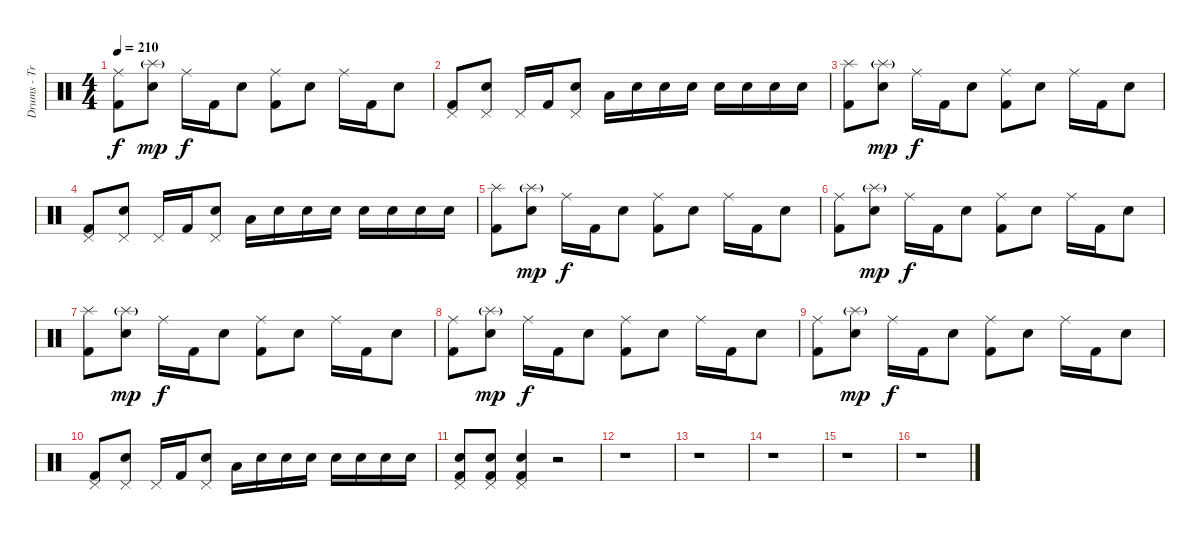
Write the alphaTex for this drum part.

\track ("Drums - Travis Barker" "Drums - Tr") {instrument percussion}
\staff {score}
\articulation defaults
\ts (4 4)
\tempo 210
\clef neutral
\ks c
("Ride (middle)" "Kick (hit) 2").8{dy f} ("Splash (hit)"{g} "Electric Snare (hit)").8{dy mp} "Ride (middle)".16{dy f} "Kick (hit) 2".16 "Electric Snare (hit)".8 ("Ride (middle)" "Kick (hit) 2").8 "Electric Snare (hit)".8 "Ride (middle)".16 "Kick (hit) 2".16 "Electric Snare (hit)".8 |
("Pedal Hi-Hat (hit)" "Kick (hit) 2").8 ("Pedal Hi-Hat (hit)" "Electric Snare (hit)").8 "Pedal Hi-Hat (hit)".16 "Kick (hit) 2".16 ("Pedal Hi-Hat (hit)" "Electric Snare (hit)").8 "Low Tom (hit)".16 "Electric Snare (hit)".16 "Electric Snare (hit)".16 "Electric Snare (hit)".16 "Electric Snare (hit)".16 "Electric Snare (hit)".16 "Electric Snare (hit)".16 "Electric Snare (hit)".16 |
("Splash (hit)" "Kick (hit) 2").8 ("Splash (hit)"{g} "Electric Snare (hit)").8{dy mp} "Ride (middle)".16{dy f} "Kick (hit) 2".16 "Electric Snare (hit)".8 ("Ride (middle)" "Kick (hit) 2").8 "Electric Snare (hit)".8 "Ride (middle)".16 "Kick (hit) 2".16 "Electric Snare (hit)".8 |
("Pedal Hi-Hat (hit)" "Kick (hit) 2").8 ("Pedal Hi-Hat (hit)" "Electric Snare (hit)").8 "Pedal Hi-Hat (hit)".16 "Kick (hit) 2".16 ("Pedal Hi-Hat (hit)" "Electric Snare (hit)").8 "Low Tom (hit)".16 "Electric Snare (hit)".16 "Electric Snare (hit)".16 "Electric Snare (hit)".16 "Electric Snare (hit)".16 "Electric Snare (hit)".16 "Electric Snare (hit)".16 "Electric Snare (hit)".16 |
("Splash (hit)" "Kick (hit) 2").8 ("Splash (hit)"{g} "Electric Snare (hit)").8{dy mp} "Ride (middle)".16{dy f} "Kick (hit) 2".16 "Electric Snare (hit)".8 ("Ride (middle)" "Kick (hit) 2").8 "Electric Snare (hit)".8 "Ride (middle)".16 "Kick (hit) 2".16 "Electric Snare (hit)".8 |
("Ride (middle)" "Kick (hit) 2").8 ("Splash (hit)"{g} "Electric Snare (hit)").8{dy mp} "Ride (middle)".16{dy f} "Kick (hit) 2".16 "Electric Snare (hit)".8 ("Ride (middle)" "Kick (hit) 2").8 "Electric Snare (hit)".8 "Ride (middle)".16 "Kick (hit) 2".16 "Electric Snare (hit)".8 |
("Splash (hit)" "Kick (hit) 2").8 ("Splash (hit)"{g} "Electric Snare (hit)").8{dy mp} "Ride (middle)".16{dy f} "Kick (hit) 2".16 "Electric Snare (hit)".8 ("Ride (middle)" "Kick (hit) 2").8 "Electric Snare (hit)".8 "Ride (middle)".16 "Kick (hit) 2".16 "Electric Snare (hit)".8 |
("Ride (middle)" "Kick (hit) 2").8 ("Splash (hit)"{g} "Electric Snare (hit)").8{dy mp} "Ride (middle)".16{dy f} "Kick (hit) 2".16 "Electric Snare (hit)".8 ("Ride (middle)" "Kick (hit) 2").8 "Electric Snare (hit)".8 "Ride (middle)".16 "Kick (hit) 2".16 "Electric Snare (hit)".8 |
("Ride (middle)" "Kick (hit) 2").8 ("Splash (hit)"{g} "Electric Snare (hit)").8{dy mp} "Ride (middle)".16{dy f} "Kick (hit) 2".16 "Electric Snare (hit)".8 ("Ride (middle)" "Kick (hit) 2").8 "Electric Snare (hit)".8 "Ride (middle)".16 "Kick (hit) 2".16 "Electric Snare (hit)".8 |
("Pedal Hi-Hat (hit)" "Kick (hit) 2").8 ("Pedal Hi-Hat (hit)" "Electric Snare (hit)").8 "Pedal Hi-Hat (hit)".16 "Kick (hit) 2".16 ("Pedal Hi-Hat (hit)" "Electric Snare (hit)").8 "Low Tom (hit)".16 "Electric Snare (hit)".16 "Electric Snare (hit)".16 "Electric Snare (hit)".16 "Electric Snare (hit)".16 "Electric Snare (hit)".16 "Electric Snare (hit)".16 "Electric Snare (hit)".16 |
("Pedal Hi-Hat (hit)" "Electric Snare (hit)" "Kick (hit) 2").8 ("Pedal Hi-Hat (hit)" "Electric Snare (hit)" "Kick (hit) 2").8 ("Pedal Hi-Hat (hit)" "Electric Snare (hit)" "Kick (hit) 2").4 r.2 |
r.1 |
r.1 |
r.1 |
r.1 |
r.1
